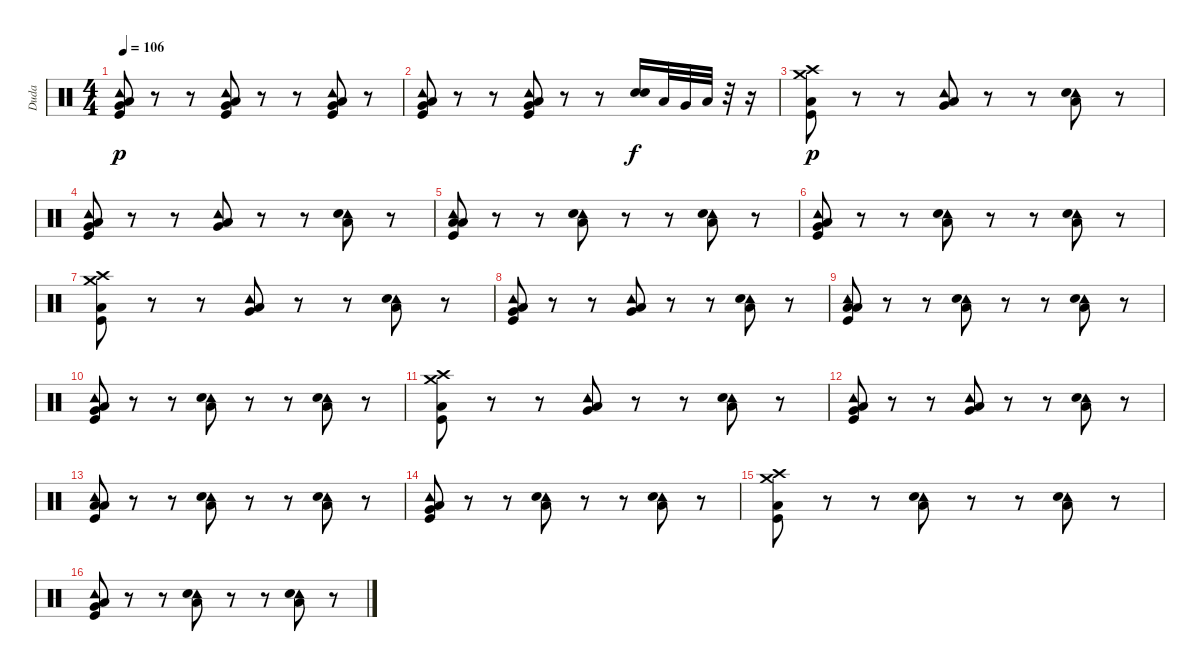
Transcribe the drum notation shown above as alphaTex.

\track ("Duda" "Duda") {instrument percussion}
\staff {score}
\articulation defaults
\ts (4 4)
\tempo 106
\clef neutral
\ks c
("Tambourine (hit)" "Low Floor Tom (hit)" "Very Low Tom (hit)" "Kick (hit)").8{dy p} r.8 r.8 ("Tambourine (hit)" "Low Floor Tom (hit)" "Very Low Tom (hit)" "Kick (hit)").8 r.8 r.8 ("Tambourine (hit)" "Low Floor Tom (hit)" "Very Low Tom (hit)" "Kick (hit)").8 r.8 |
("Tambourine (hit)" "Low Floor Tom (hit)" "Very Low Tom (hit)" "Kick (hit)").8 r.8 r.8 ("Tambourine (hit)" "Low Floor Tom (hit)" "Very Low Tom (hit)" "Kick (hit)").8 r.8 r.8 ("Electric Snare (hit)" "Electric Snare (hit)").16{bd 60 dy f} "Low Tom (hit)".32 "Very Low Tom (hit)".32 "Low Floor Tom (hit)".32 r.32 r.16 |
("Crash medium (hit)" "Low Floor Tom (hit)" "Crash high (hit)" "Kick (hit)").8{dy p} r.8 r.8 ("Tambourine (hit)" "Very Low Tom (hit)" "Low Floor Tom (hit)").8 r.8 r.8 ("Tambourine (hit)" "Low Floor Tom (hit)" "Electric Snare (hit)").8 r.8 |
("Tambourine (hit)" "Very Low Tom (hit)" "Low Floor Tom (hit)" "Kick (hit)").8 r.8 r.8 ("Tambourine (hit)" "Very Low Tom (hit)" "Low Floor Tom (hit)").8 r.8 r.8 ("Tambourine (hit)" "Low Floor Tom (hit)" "Electric Snare (hit)").8 r.8 |
("Tambourine (hit)" "Low Floor Tom (hit)" "Low Floor Tom (hit)" "Kick (hit)").8 r.8 r.8 ("Tambourine (hit)" "Low Floor Tom (hit)" "Electric Snare (hit)").8 r.8 r.8 ("Tambourine (hit)" "Low Floor Tom (hit)" "Electric Snare (hit)").8 r.8 |
("Tambourine (hit)" "Very Low Tom (hit)" "Low Floor Tom (hit)" "Kick (hit)").8 r.8 r.8 ("Tambourine (hit)" "Low Floor Tom (hit)" "Electric Snare (hit)").8 r.8 r.8 ("Tambourine (hit)" "Low Floor Tom (hit)" "Electric Snare (hit)").8 r.8 |
("Crash medium (hit)" "Low Floor Tom (hit)" "Crash high (hit)" "Kick (hit)").8 r.8 r.8 ("Tambourine (hit)" "Very Low Tom (hit)" "Low Floor Tom (hit)").8 r.8 r.8 ("Tambourine (hit)" "Low Floor Tom (hit)" "Electric Snare (hit)").8 r.8 |
("Tambourine (hit)" "Very Low Tom (hit)" "Low Floor Tom (hit)" "Kick (hit)").8 r.8 r.8 ("Tambourine (hit)" "Very Low Tom (hit)" "Low Floor Tom (hit)").8 r.8 r.8 ("Tambourine (hit)" "Low Floor Tom (hit)" "Electric Snare (hit)").8 r.8 |
("Tambourine (hit)" "Low Floor Tom (hit)" "Low Floor Tom (hit)" "Kick (hit)").8 r.8 r.8 ("Tambourine (hit)" "Low Floor Tom (hit)" "Electric Snare (hit)").8 r.8 r.8 ("Tambourine (hit)" "Low Floor Tom (hit)" "Electric Snare (hit)").8 r.8 |
("Tambourine (hit)" "Very Low Tom (hit)" "Low Floor Tom (hit)" "Kick (hit)").8 r.8 r.8 ("Tambourine (hit)" "Low Floor Tom (hit)" "Electric Snare (hit)").8 r.8 r.8 ("Tambourine (hit)" "Low Floor Tom (hit)" "Electric Snare (hit)").8 r.8 |
("Crash medium (hit)" "Low Floor Tom (hit)" "Crash high (hit)" "Kick (hit)").8 r.8 r.8 ("Tambourine (hit)" "Very Low Tom (hit)" "Low Floor Tom (hit)").8 r.8 r.8 ("Tambourine (hit)" "Low Floor Tom (hit)" "Electric Snare (hit)").8 r.8 |
("Tambourine (hit)" "Very Low Tom (hit)" "Low Floor Tom (hit)" "Kick (hit)").8 r.8 r.8 ("Tambourine (hit)" "Very Low Tom (hit)" "Low Floor Tom (hit)").8 r.8 r.8 ("Tambourine (hit)" "Low Floor Tom (hit)" "Electric Snare (hit)").8 r.8 |
("Tambourine (hit)" "Low Floor Tom (hit)" "Low Floor Tom (hit)" "Kick (hit)").8 r.8 r.8 ("Tambourine (hit)" "Low Floor Tom (hit)" "Electric Snare (hit)").8 r.8 r.8 ("Tambourine (hit)" "Low Floor Tom (hit)" "Electric Snare (hit)").8 r.8 |
("Tambourine (hit)" "Very Low Tom (hit)" "Low Floor Tom (hit)" "Kick (hit)").8 r.8 r.8 ("Tambourine (hit)" "Low Floor Tom (hit)" "Electric Snare (hit)").8 r.8 r.8 ("Tambourine (hit)" "Low Floor Tom (hit)" "Electric Snare (hit)").8 r.8 |
("Crash medium (hit)" "Low Floor Tom (hit)" "Crash high (hit)" "Kick (hit)").8 r.8 r.8 ("Tambourine (hit)" "Low Floor Tom (hit)" "Electric Snare (hit)").8 r.8 r.8 ("Tambourine (hit)" "Low Floor Tom (hit)" "Electric Snare (hit)").8 r.8 |
("Tambourine (hit)" "Very Low Tom (hit)" "Low Floor Tom (hit)" "Kick (hit)").8 r.8 r.8 ("Tambourine (hit)" "Low Floor Tom (hit)" "Electric Snare (hit)").8 r.8 r.8 ("Tambourine (hit)" "Low Floor Tom (hit)" "Electric Snare (hit)").8 r.8
